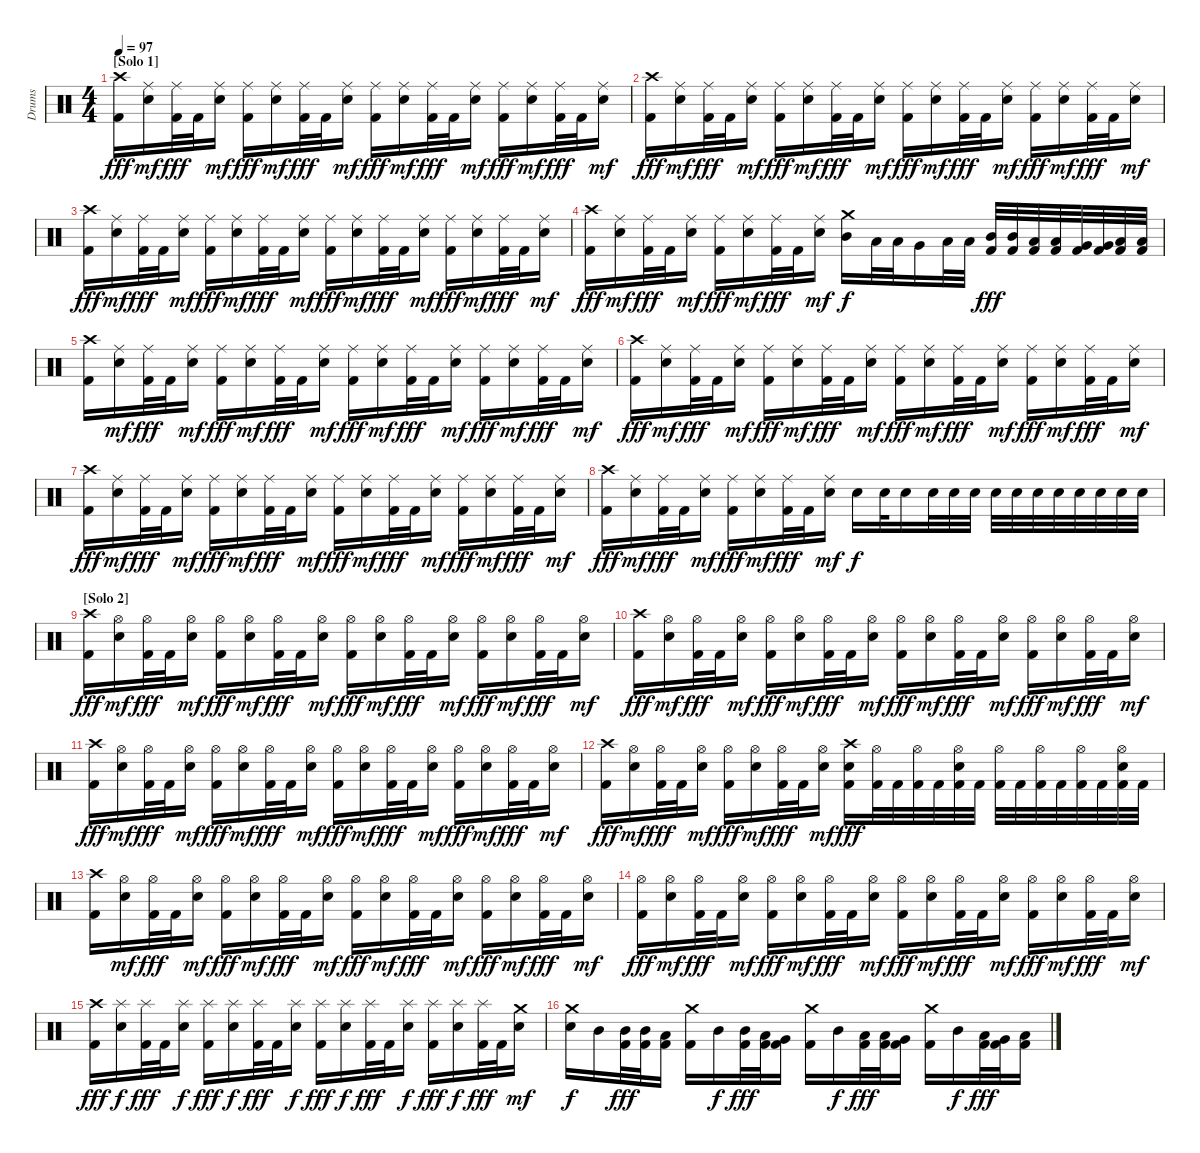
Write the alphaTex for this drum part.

\track ("Drums" "Drums") {instrument percussion}
\staff {score}
\articulation defaults
\ts (4 4)
\section ("" "[Solo 1]")
\tempo 97
\clef neutral
\ks c
("Crash high (hit)" "Kick (hit) 2").16{dy fff} ("Ride (middle)" "Snare (hit) 2").16{dy mf} ("Ride (middle)" "Kick (hit) 2").32{dy fff} "Kick (hit) 2".32 ("Ride (middle)" "Snare (hit) 2").16{dy mf} ("Ride (middle)" "Kick (hit) 2").16{dy fff} ("Ride (middle)" "Snare (hit) 2").16{dy mf} ("Ride (middle)" "Kick (hit) 2").32{dy fff} "Kick (hit) 2".32 ("Ride (middle)" "Snare (hit) 2").16{dy mf} ("Ride (middle)" "Kick (hit) 2").16{dy fff} ("Ride (middle)" "Snare (hit) 2").16{dy mf} ("Ride (middle)" "Kick (hit) 2").32{dy fff} "Kick (hit) 2".32 ("Ride (middle)" "Snare (hit) 2").16{dy mf} ("Ride (middle)" "Kick (hit) 2").16{dy fff} ("Ride (middle)" "Snare (hit) 2").16{dy mf} ("Ride (middle)" "Kick (hit) 2").32{dy fff} "Kick (hit) 2".32 ("Ride (middle)" "Snare (hit) 2").16{dy mf} |
("Crash high (hit)" "Kick (hit) 2").16{dy fff} ("Ride (middle)" "Snare (hit) 2").16{dy mf} ("Ride (middle)" "Kick (hit) 2").32{dy fff} "Kick (hit) 2".32 ("Ride (middle)" "Snare (hit) 2").16{dy mf} ("Ride (middle)" "Kick (hit) 2").16{dy fff} ("Ride (middle)" "Snare (hit) 2").16{dy mf} ("Ride (middle)" "Kick (hit) 2").32{dy fff} "Kick (hit) 2".32 ("Ride (middle)" "Snare (hit) 2").16{dy mf} ("Ride (middle)" "Kick (hit) 2").16{dy fff} ("Ride (middle)" "Snare (hit) 2").16{dy mf} ("Ride (middle)" "Kick (hit) 2").32{dy fff} "Kick (hit) 2".32 ("Ride (middle)" "Snare (hit) 2").16{dy mf} ("Ride (middle)" "Kick (hit) 2").16{dy fff} ("Ride (middle)" "Snare (hit) 2").16{dy mf} ("Ride (middle)" "Kick (hit) 2").32{dy fff} "Kick (hit) 2".32 ("Ride (middle)" "Snare (hit) 2").16{dy mf} |
("Crash high (hit)" "Kick (hit) 2").16{dy fff} ("Ride (middle)" "Snare (hit) 2").16{dy mf} ("Ride (middle)" "Kick (hit) 2").32{dy fff} "Kick (hit) 2".32 ("Ride (middle)" "Snare (hit) 2").16{dy mf} ("Ride (middle)" "Kick (hit) 2").16{dy fff} ("Ride (middle)" "Snare (hit) 2").16{dy mf} ("Ride (middle)" "Kick (hit) 2").32{dy fff} "Kick (hit) 2".32 ("Ride (middle)" "Snare (hit) 2").16{dy mf} ("Ride (middle)" "Kick (hit) 2").16{dy fff} ("Ride (middle)" "Snare (hit) 2").16{dy mf} ("Ride (middle)" "Kick (hit) 2").32{dy fff} "Kick (hit) 2".32 ("Ride (middle)" "Snare (hit) 2").16{dy mf} ("Ride (middle)" "Kick (hit) 2").16{dy fff} ("Ride (middle)" "Snare (hit) 2").16{dy mf} ("Ride (middle)" "Kick (hit) 2").32{dy fff} "Kick (hit) 2".32 ("Ride (middle)" "Snare (hit) 2").16{dy mf} |
("Crash high (hit)" "Kick (hit) 2").16{dy fff} ("Ride (middle)" "Snare (hit) 2").16{dy mf} ("Ride (middle)" "Kick (hit) 2").32{dy fff} "Kick (hit) 2".32 ("Ride (middle)" "Snare (hit) 2").16{dy mf} ("Ride (middle)" "Kick (hit) 2").16{dy fff} ("Ride (middle)" "Snare (hit) 2").16{dy mf} ("Ride (middle)" "Kick (hit) 2").32{dy fff} "Kick (hit) 2".32 ("Ride (middle)" "Snare (hit) 2").16{dy mf} ("Crash medium (hit)" "Mid Tom (hit)").16{dy f} "Low Tom (hit)".32 "Low Tom (hit)".32 "Very Low Tom (hit)".16 "Low Floor Tom (hit)".32 "Low Floor Tom (hit)".32 ("Mid Tom (hit)" "Kick (hit) 2").32{dy fff} ("Mid Tom (hit)" "Kick (hit) 2").32 ("Low Tom (hit)" "Kick (hit) 2").32 ("Low Tom (hit)" "Kick (hit) 2").32 ("Very Low Tom (hit)" "Kick (hit) 2").32 ("Very Low Tom (hit)" "Kick (hit) 2").32 ("Low Floor Tom (hit)" "Kick (hit) 2").32 ("Low Floor Tom (hit)" "Kick (hit) 2").32 |
("Crash high (hit)" "Kick (hit) 2").16 ("Ride (middle)" "Snare (hit) 2").16{dy mf} ("Ride (middle)" "Kick (hit) 2").32{dy fff} "Kick (hit) 2".32 ("Ride (middle)" "Snare (hit) 2").16{dy mf} ("Ride (middle)" "Kick (hit) 2").16{dy fff} ("Ride (middle)" "Snare (hit) 2").16{dy mf} ("Ride (middle)" "Kick (hit) 2").32{dy fff} "Kick (hit) 2".32 ("Ride (middle)" "Snare (hit) 2").16{dy mf} ("Ride (middle)" "Kick (hit) 2").16{dy fff} ("Ride (middle)" "Snare (hit) 2").16{dy mf} ("Ride (middle)" "Kick (hit) 2").32{dy fff} "Kick (hit) 2".32 ("Ride (middle)" "Snare (hit) 2").16{dy mf} ("Ride (middle)" "Kick (hit) 2").16{dy fff} ("Ride (middle)" "Snare (hit) 2").16{dy mf} ("Ride (middle)" "Kick (hit) 2").32{dy fff} "Kick (hit) 2".32 ("Ride (middle)" "Snare (hit) 2").16{dy mf} |
("Crash high (hit)" "Kick (hit) 2").16{dy fff} ("Ride (middle)" "Snare (hit) 2").16{dy mf} ("Ride (middle)" "Kick (hit) 2").32{dy fff} "Kick (hit) 2".32 ("Ride (middle)" "Snare (hit) 2").16{dy mf} ("Ride (middle)" "Kick (hit) 2").16{dy fff} ("Ride (middle)" "Snare (hit) 2").16{dy mf} ("Ride (middle)" "Kick (hit) 2").32{dy fff} "Kick (hit) 2".32 ("Ride (middle)" "Snare (hit) 2").16{dy mf} ("Ride (middle)" "Kick (hit) 2").16{dy fff} ("Ride (middle)" "Snare (hit) 2").16{dy mf} ("Ride (middle)" "Kick (hit) 2").32{dy fff} "Kick (hit) 2".32 ("Ride (middle)" "Snare (hit) 2").16{dy mf} ("Ride (middle)" "Kick (hit) 2").16{dy fff} ("Ride (middle)" "Snare (hit) 2").16{dy mf} ("Ride (middle)" "Kick (hit) 2").32{dy fff} "Kick (hit) 2".32 ("Ride (middle)" "Snare (hit) 2").16{dy mf} |
("Crash high (hit)" "Kick (hit) 2").16{dy fff} ("Ride (middle)" "Snare (hit) 2").16{dy mf} ("Ride (middle)" "Kick (hit) 2").32{dy fff} "Kick (hit) 2".32 ("Ride (middle)" "Snare (hit) 2").16{dy mf} ("Ride (middle)" "Kick (hit) 2").16{dy fff} ("Ride (middle)" "Snare (hit) 2").16{dy mf} ("Ride (middle)" "Kick (hit) 2").32{dy fff} "Kick (hit) 2".32 ("Ride (middle)" "Snare (hit) 2").16{dy mf} ("Ride (middle)" "Kick (hit) 2").16{dy fff} ("Ride (middle)" "Snare (hit) 2").16{dy mf} ("Ride (middle)" "Kick (hit) 2").32{dy fff} "Kick (hit) 2".32 ("Ride (middle)" "Snare (hit) 2").16{dy mf} ("Ride (middle)" "Kick (hit) 2").16{dy fff} ("Ride (middle)" "Snare (hit) 2").16{dy mf} ("Ride (middle)" "Kick (hit) 2").32{dy fff} "Kick (hit) 2".32 ("Ride (middle)" "Snare (hit) 2").16{dy mf} |
("Crash high (hit)" "Kick (hit) 2").16{dy fff} ("Ride (middle)" "Snare (hit) 2").16{dy mf} ("Ride (middle)" "Kick (hit) 2").32{dy fff} "Kick (hit) 2".32 ("Ride (middle)" "Snare (hit) 2").16{dy mf} ("Ride (middle)" "Kick (hit) 2").16{dy fff} ("Ride (middle)" "Snare (hit) 2").16{dy mf} ("Ride (middle)" "Kick (hit) 2").32{dy fff} "Kick (hit) 2".32 ("Ride (middle)" "Snare (hit) 2").16{dy mf} "Snare (hit) 2".16{dy f} "Snare (hit) 2".32 "Snare (hit) 2".16 "Snare (hit) 2".32 "Snare (hit) 2".32 "Snare (hit) 2".32 "Snare (hit) 2".32 "Snare (hit) 2".32 "Snare (hit) 2".32 "Snare (hit) 2".32 "Snare (hit) 2".32 "Snare (hit) 2".32 "Snare (hit) 2".32 "Snare (hit) 2".32 |
\section ("" "[Solo 2]")
("Crash high (hit)" "Kick (hit) 2").16{dy fff} ("Hi-Hat (open)" "Snare (hit) 2").16{dy mf} ("Hi-Hat (open)" "Kick (hit) 2").32{dy fff} "Kick (hit) 2".32 ("Hi-Hat (open)" "Snare (hit) 2").16{dy mf} ("Hi-Hat (open)" "Kick (hit) 2").16{dy fff} ("Hi-Hat (open)" "Snare (hit) 2").16{dy mf} ("Hi-Hat (open)" "Kick (hit) 2").32{dy fff} "Kick (hit) 2".32 ("Hi-Hat (open)" "Snare (hit) 2").16{dy mf} ("Hi-Hat (open)" "Kick (hit) 2").16{dy fff} ("Hi-Hat (open)" "Snare (hit) 2").16{dy mf} ("Hi-Hat (open)" "Kick (hit) 2").32{dy fff} "Kick (hit) 2".32 ("Hi-Hat (open)" "Snare (hit) 2").16{dy mf} ("Hi-Hat (open)" "Kick (hit) 2").16{dy fff} ("Hi-Hat (open)" "Snare (hit) 2").16{dy mf} ("Hi-Hat (open)" "Kick (hit) 2").32{dy fff} "Kick (hit) 2".32 ("Hi-Hat (open)" "Snare (hit) 2").16{dy mf} |
("Crash high (hit)" "Kick (hit) 2").16{dy fff} ("Hi-Hat (open)" "Snare (hit) 2").16{dy mf} ("Hi-Hat (open)" "Kick (hit) 2").32{dy fff} "Kick (hit) 2".32 ("Hi-Hat (open)" "Snare (hit) 2").16{dy mf} ("Hi-Hat (open)" "Kick (hit) 2").16{dy fff} ("Hi-Hat (open)" "Snare (hit) 2").16{dy mf} ("Hi-Hat (open)" "Kick (hit) 2").32{dy fff} "Kick (hit) 2".32 ("Hi-Hat (open)" "Snare (hit) 2").16{dy mf} ("Hi-Hat (open)" "Kick (hit) 2").16{dy fff} ("Hi-Hat (open)" "Snare (hit) 2").16{dy mf} ("Hi-Hat (open)" "Kick (hit) 2").32{dy fff} "Kick (hit) 2".32 ("Hi-Hat (open)" "Snare (hit) 2").16{dy mf} ("Hi-Hat (open)" "Kick (hit) 2").16{dy fff} ("Hi-Hat (open)" "Snare (hit) 2").16{dy mf} ("Hi-Hat (open)" "Kick (hit) 2").32{dy fff} "Kick (hit) 2".32 ("Hi-Hat (open)" "Snare (hit) 2").16{dy mf} |
("Crash high (hit)" "Kick (hit) 2").16{dy fff} ("Hi-Hat (open)" "Snare (hit) 2").16{dy mf} ("Hi-Hat (open)" "Kick (hit) 2").32{dy fff} "Kick (hit) 2".32 ("Hi-Hat (open)" "Snare (hit) 2").16{dy mf} ("Hi-Hat (open)" "Kick (hit) 2").16{dy fff} ("Hi-Hat (open)" "Snare (hit) 2").16{dy mf} ("Hi-Hat (open)" "Kick (hit) 2").32{dy fff} "Kick (hit) 2".32 ("Hi-Hat (open)" "Snare (hit) 2").16{dy mf} ("Hi-Hat (open)" "Kick (hit) 2").16{dy fff} ("Hi-Hat (open)" "Snare (hit) 2").16{dy mf} ("Hi-Hat (open)" "Kick (hit) 2").32{dy fff} "Kick (hit) 2".32 ("Hi-Hat (open)" "Snare (hit) 2").16{dy mf} ("Hi-Hat (open)" "Kick (hit) 2").16{dy fff} ("Hi-Hat (open)" "Snare (hit) 2").16{dy mf} ("Hi-Hat (open)" "Kick (hit) 2").32{dy fff} "Kick (hit) 2".32 ("Hi-Hat (open)" "Snare (hit) 2").16{dy mf} |
("Crash high (hit)" "Kick (hit) 2").16{dy fff} ("Hi-Hat (open)" "Snare (hit) 2").16{dy mf} ("Hi-Hat (open)" "Kick (hit) 2").32{dy fff} "Kick (hit) 2".32 ("Hi-Hat (open)" "Snare (hit) 2").16{dy mf} ("Hi-Hat (open)" "Kick (hit) 2").16{dy fff} ("Hi-Hat (open)" "Snare (hit) 2").16{dy mf} ("Hi-Hat (open)" "Kick (hit) 2").32{dy fff} "Kick (hit) 2".32 ("Hi-Hat (open)" "Snare (hit) 2").16{dy mf} ("Crash high (hit)" "Snare (hit) 2" "Kick (hit) 2").16{dy fff} ("Hi-Hat (open)" "Kick (hit) 2").32 "Kick (hit) 2".32 ("Hi-Hat (open)" "Kick (hit) 2").32 "Kick (hit) 2".32 ("Hi-Hat (open)" "Snare (hit) 2" "Kick (hit) 2").32 "Kick (hit) 2".32 ("Hi-Hat (open)" "Kick (hit) 2").32 "Kick (hit) 2".32 ("Hi-Hat (open)" "Kick (hit) 2").32 "Kick (hit) 2".32 ("Hi-Hat (open)" "Kick (hit) 2").32 "Kick (hit) 2".32 ("Hi-Hat (open)" "Snare (hit) 2" "Kick (hit) 2").32 "Kick (hit) 2".32 |
("Crash high (hit)" "Kick (hit) 2").16 ("Hi-Hat (open)" "Snare (hit) 2").16{dy mf} ("Hi-Hat (open)" "Kick (hit) 2").32{dy fff} "Kick (hit) 2".32 ("Hi-Hat (open)" "Snare (hit) 2").16{dy mf} ("Hi-Hat (open)" "Kick (hit) 2").16{dy fff} ("Hi-Hat (open)" "Snare (hit) 2").16{dy mf} ("Hi-Hat (open)" "Kick (hit) 2").32{dy fff} "Kick (hit) 2".32 ("Hi-Hat (open)" "Snare (hit) 2").16{dy mf} ("Hi-Hat (open)" "Kick (hit) 2").16{dy fff} ("Hi-Hat (open)" "Snare (hit) 2").16{dy mf} ("Hi-Hat (open)" "Kick (hit) 2").32{dy fff} "Kick (hit) 2".32 ("Hi-Hat (open)" "Snare (hit) 2").16{dy mf} ("Hi-Hat (open)" "Kick (hit) 2").16{dy fff} ("Hi-Hat (open)" "Snare (hit) 2").16{dy mf} ("Hi-Hat (open)" "Kick (hit) 2").32{dy fff} "Kick (hit) 2".32 ("Hi-Hat (open)" "Snare (hit) 2").16{dy mf} |
("Hi-Hat (open)" "Kick (hit) 2").16{dy fff} ("Hi-Hat (open)" "Snare (hit) 2").16{dy mf} ("Hi-Hat (open)" "Kick (hit) 2").32{dy fff} "Kick (hit) 2".32 ("Hi-Hat (open)" "Snare (hit) 2").16{dy mf} ("Hi-Hat (open)" "Kick (hit) 2").16{dy fff} ("Hi-Hat (open)" "Snare (hit) 2").16{dy mf} ("Hi-Hat (open)" "Kick (hit) 2").32{dy fff} "Kick (hit) 2".32 ("Hi-Hat (open)" "Snare (hit) 2").16{dy mf} ("Hi-Hat (open)" "Kick (hit) 2").16{dy fff} ("Hi-Hat (open)" "Snare (hit) 2").16{dy mf} ("Hi-Hat (open)" "Kick (hit) 2").32{dy fff} "Kick (hit) 2".32 ("Hi-Hat (open)" "Snare (hit) 2").16{dy mf} ("Hi-Hat (open)" "Kick (hit) 2").16{dy fff} ("Hi-Hat (open)" "Snare (hit) 2").16{dy mf} ("Hi-Hat (open)" "Kick (hit) 2").32{dy fff} "Kick (hit) 2".32 ("Hi-Hat (open)" "Snare (hit) 2").16{dy mf} |
("Crash high (hit)" "Kick (hit) 2").16{dy fff} ("Splash (hit)" "Snare (hit) 2").16{dy f} ("Splash (hit)" "Kick (hit) 2").32{dy fff} "Kick (hit) 2".32 ("Splash (hit)" "Snare (hit) 2").16{dy f} ("Splash (hit)" "Kick (hit) 2").16{dy fff} ("Splash (hit)" "Snare (hit) 2").16{dy f} ("Splash (hit)" "Kick (hit) 2").32{dy fff} "Kick (hit) 2".32 ("Splash (hit)" "Snare (hit) 2").16{dy f} ("Splash (hit)" "Kick (hit) 2").16{dy fff} ("Splash (hit)" "Snare (hit) 2").16{dy f} ("Splash (hit)" "Kick (hit) 2").32{dy fff} "Kick (hit) 2".32 ("Splash (hit)" "Snare (hit) 2").16{dy f} ("Splash (hit)" "Kick (hit) 2").16{dy fff} ("Splash (hit)" "Snare (hit) 2").16{dy f} ("Splash (hit)" "Kick (hit) 2").32{dy fff} "Kick (hit) 2".32 ("Crash medium (hit)" "Snare (hit) 2").16{dy mf} |
("Crash medium (hit)" "Snare (hit) 2").16{dy f} "Mid Tom (hit)".16 ("Mid Tom (hit)" "Kick (hit) 2").32{dy fff} ("Mid Tom (hit)" "Kick (hit) 2").32 ("Low Tom (hit)" "Kick (hit) 2").16 ("Crash medium (hit)" "Kick (hit) 2").16 "Mid Tom (hit)".16{dy f} ("Mid Tom (hit)" "Kick (hit) 2").32{dy fff} ("Low Tom (hit)" "Kick (hit) 2").32 ("Very Low Tom (hit)" "Kick (hit) 2").16 ("Crash medium (hit)" "Kick (hit) 2").16 "Mid Tom (hit)".16{dy f} ("Low Tom (hit)" "Kick (hit) 2").32{dy fff} ("Low Tom (hit)" "Kick (hit) 2").32 ("Very Low Tom (hit)" "Kick (hit) 2").16 ("Crash medium (hit)" "Kick (hit) 2").16 "Mid Tom (hit)".16{dy f} ("Low Tom (hit)" "Kick (hit) 2").32{dy fff} ("Very Low Tom (hit)" "Kick (hit) 2").32 ("Low Floor Tom (hit)" "Kick (hit) 2").16
